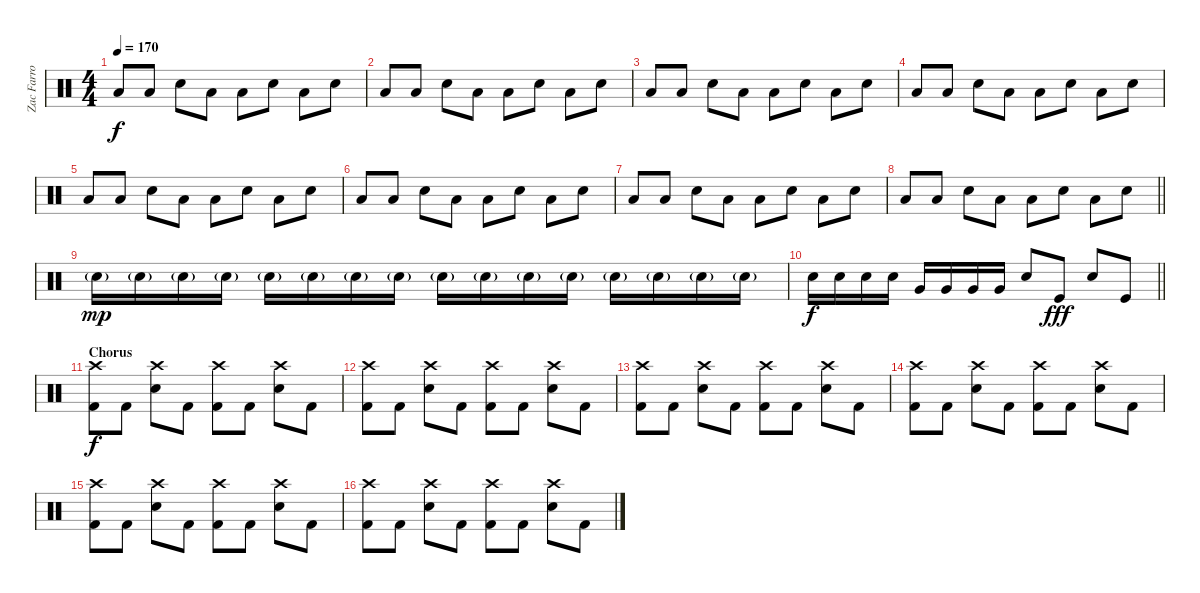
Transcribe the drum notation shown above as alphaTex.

\track ("Zac Farro (Percussion)" "Zac Farro ") {instrument percussion}
\staff {score}
\articulation defaults
\ts (4 4)
\tempo 170
\clef neutral
\ks c "Low Floor Tom (hit)".8{dy f} "Low Floor Tom (hit)".8 "Electric Snare (hit)".8 "Low Floor Tom (hit)".8 "Low Floor Tom (hit)".8 "Electric Snare (hit)".8 "Low Floor Tom (hit)".8 "Electric Snare (hit)".8
|
"Low Floor Tom (hit)".8 "Low Floor Tom (hit)".8 "Electric Snare (hit)".8 "Low Floor Tom (hit)".8 "Low Floor Tom (hit)".8 "Electric Snare (hit)".8 "Low Floor Tom (hit)".8 "Electric Snare (hit)".8 |
"Low Floor Tom (hit)".8 "Low Floor Tom (hit)".8 "Electric Snare (hit)".8 "Low Floor Tom (hit)".8 "Low Floor Tom (hit)".8 "Electric Snare (hit)".8 "Low Floor Tom (hit)".8 "Electric Snare (hit)".8 |
"Low Floor Tom (hit)".8 "Low Floor Tom (hit)".8 "Electric Snare (hit)".8 "Low Floor Tom (hit)".8 "Low Floor Tom (hit)".8 "Electric Snare (hit)".8 "Low Floor Tom (hit)".8 "Electric Snare (hit)".8 |
"Low Floor Tom (hit)".8 "Low Floor Tom (hit)".8 "Electric Snare (hit)".8 "Low Floor Tom (hit)".8 "Low Floor Tom (hit)".8 "Electric Snare (hit)".8 "Low Floor Tom (hit)".8 "Electric Snare (hit)".8 |
"Low Floor Tom (hit)".8 "Low Floor Tom (hit)".8 "Electric Snare (hit)".8 "Low Floor Tom (hit)".8 "Low Floor Tom (hit)".8 "Electric Snare (hit)".8 "Low Floor Tom (hit)".8 "Electric Snare (hit)".8 |
"Low Floor Tom (hit)".8 "Low Floor Tom (hit)".8 "Electric Snare (hit)".8 "Low Floor Tom (hit)".8 "Low Floor Tom (hit)".8 "Electric Snare (hit)".8 "Low Floor Tom (hit)".8 "Electric Snare (hit)".8 |
\barLineRight lightlight "Low Floor Tom (hit)".8 "Low Floor Tom (hit)".8 "Electric Snare (hit)".8 "Low Floor Tom (hit)".8 "Low Floor Tom (hit)".8 "Electric Snare (hit)".8 "Low Floor Tom (hit)".8 "Electric Snare (hit)".8
|
"Electric Snare (hit)"{g}.16{dy mp} "Electric Snare (hit)"{g}.16 "Electric Snare (hit)"{g}.16 "Electric Snare (hit)"{g}.16 "Electric Snare (hit)"{g}.16 "Electric Snare (hit)"{g}.16 "Electric Snare (hit)"{g}.16 "Electric Snare (hit)"{g}.16 "Electric Snare (hit)"{g}.16 "Electric Snare (hit)"{g}.16 "Electric Snare (hit)"{g}.16 "Electric Snare (hit)"{g}.16 "Electric Snare (hit)"{g}.16 "Electric Snare (hit)"{g}.16 "Electric Snare (hit)"{g}.16 "Electric Snare (hit)"{g}.16 |
\barLineRight lightlight "Electric Snare (hit)".16{dy f} "Electric Snare (hit)".16 "Electric Snare (hit)".16 "Electric Snare (hit)".16 "Very Low Tom (hit)".16 "Very Low Tom (hit)".16 "Very Low Tom (hit)".16 "Very Low Tom (hit)".16 "Electric Snare (hit)".8 "Kick (hit)".8{dy fff} "Electric Snare (hit)".8 "Kick (hit)".8
|
\section ("" "Chorus")
("Crash high (hit)" "Kick (hit) 2").8{dy f} "Kick (hit) 2".8 ("Crash high (hit)" "Electric Snare (hit)").8 "Kick (hit) 2".8 ("Crash high (hit)" "Kick (hit) 2").8 "Kick (hit) 2".8 ("Crash high (hit)" "Electric Snare (hit)").8 "Kick (hit) 2".8 |
("Crash high (hit)" "Kick (hit) 2").8 "Kick (hit) 2".8 ("Crash high (hit)" "Electric Snare (hit)").8 "Kick (hit) 2".8 ("Crash high (hit)" "Kick (hit) 2").8 "Kick (hit) 2".8 ("Crash high (hit)" "Electric Snare (hit)").8 "Kick (hit) 2".8 |
("Crash high (hit)" "Kick (hit) 2").8 "Kick (hit) 2".8 ("Crash high (hit)" "Electric Snare (hit)").8 "Kick (hit) 2".8 ("Crash high (hit)" "Kick (hit) 2").8 "Kick (hit) 2".8 ("Crash high (hit)" "Electric Snare (hit)").8 "Kick (hit) 2".8 |
("Crash high (hit)" "Kick (hit) 2").8 "Kick (hit) 2".8 ("Crash high (hit)" "Electric Snare (hit)").8 "Kick (hit) 2".8 ("Crash high (hit)" "Kick (hit) 2").8 "Kick (hit) 2".8 ("Crash high (hit)" "Electric Snare (hit)").8 "Kick (hit) 2".8 |
("Crash high (hit)" "Kick (hit) 2").8 "Kick (hit) 2".8 ("Crash high (hit)" "Electric Snare (hit)").8 "Kick (hit) 2".8 ("Crash high (hit)" "Kick (hit) 2").8 "Kick (hit) 2".8 ("Crash high (hit)" "Electric Snare (hit)").8 "Kick (hit) 2".8 |
("Crash high (hit)" "Kick (hit) 2").8 "Kick (hit) 2".8 ("Crash high (hit)" "Electric Snare (hit)").8 "Kick (hit) 2".8 ("Crash high (hit)" "Kick (hit) 2").8 "Kick (hit) 2".8 ("Crash high (hit)" "Electric Snare (hit)").8 "Kick (hit) 2".8
